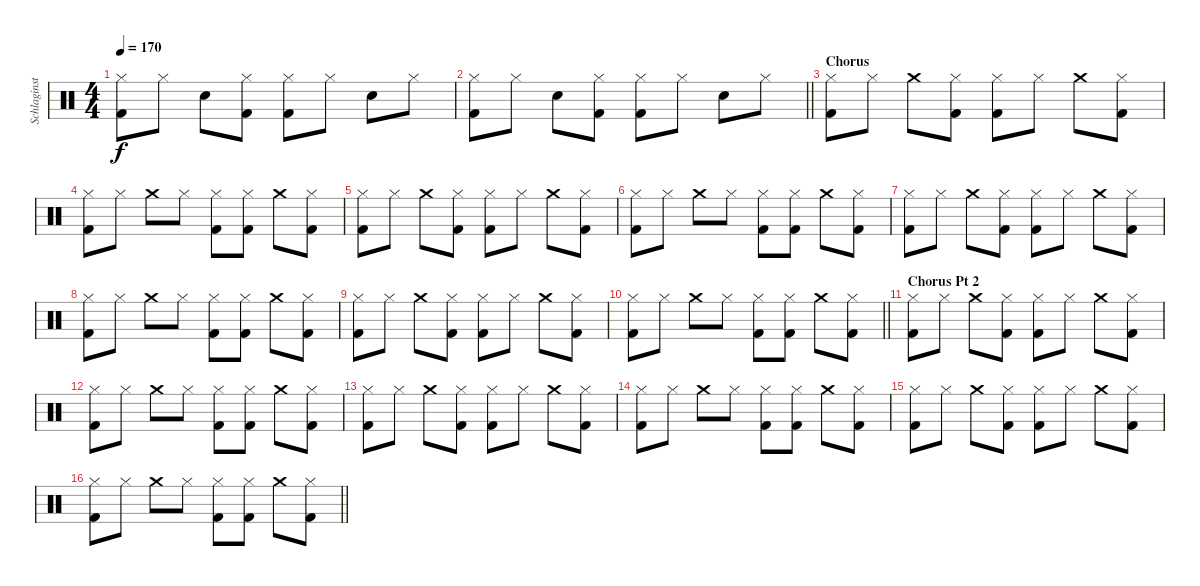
\track ("Schlaginstrumente - Auswahl" "Schlaginst") {instrument percussion}
\staff {score}
\articulation defaults
\ts (4 4)
\tempo 170
\clef neutral
\ks c
("Hi-Hat (closed)" "Kick (hit) 2").8{dy f} "Hi-Hat (closed)".8 "Snare (hit) 2".8 ("Hi-Hat (closed)" "Kick (hit) 2").8 ("Hi-Hat (closed)" "Kick (hit) 2").8 "Hi-Hat (closed)".8 "Snare (hit) 2".8 "Hi-Hat (closed)".8 |
\barLineRight lightlight
("Hi-Hat (closed)" "Kick (hit) 2").8 "Hi-Hat (closed)".8 "Snare (hit) 2".8 ("Hi-Hat (closed)" "Kick (hit) 2").8 ("Hi-Hat (closed)" "Kick (hit) 2").8 "Hi-Hat (closed)".8 "Snare (hit) 2".8 "Hi-Hat (closed)".8 |
\section ("" "Chorus")
("Hi-Hat (closed)" "Kick (hit) 2").8 "Hi-Hat (closed)".8 "Crash medium (hit)".8 ("Hi-Hat (closed)" "Kick (hit) 2").8 ("Hi-Hat (closed)" "Kick (hit) 2").8 "Hi-Hat (closed)".8 "Crash medium (hit)".8 ("Hi-Hat (closed)" "Kick (hit) 2").8 |
("Hi-Hat (closed)" "Kick (hit) 2").8 "Hi-Hat (closed)".8 "Crash medium (hit)".8 "Hi-Hat (closed)".8 ("Hi-Hat (closed)" "Kick (hit) 2").8 ("Hi-Hat (closed)" "Kick (hit) 2").8 "Crash medium (hit)".8 ("Hi-Hat (closed)" "Kick (hit) 2").8 |
("Hi-Hat (closed)" "Kick (hit) 2").8 "Hi-Hat (closed)".8 "Crash medium (hit)".8 ("Hi-Hat (closed)" "Kick (hit) 2").8 ("Hi-Hat (closed)" "Kick (hit) 2").8 "Hi-Hat (closed)".8 "Crash medium (hit)".8 ("Hi-Hat (closed)" "Kick (hit) 2").8 |
("Hi-Hat (closed)" "Kick (hit) 2").8 "Hi-Hat (closed)".8 "Crash medium (hit)".8 "Hi-Hat (closed)".8 ("Hi-Hat (closed)" "Kick (hit) 2").8 ("Hi-Hat (closed)" "Kick (hit) 2").8 "Crash medium (hit)".8 ("Hi-Hat (closed)" "Kick (hit) 2").8 |
("Hi-Hat (closed)" "Kick (hit) 2").8 "Hi-Hat (closed)".8 "Crash medium (hit)".8 ("Hi-Hat (closed)" "Kick (hit) 2").8 ("Hi-Hat (closed)" "Kick (hit) 2").8 "Hi-Hat (closed)".8 "Crash medium (hit)".8 ("Hi-Hat (closed)" "Kick (hit) 2").8 |
("Hi-Hat (closed)" "Kick (hit) 2").8 "Hi-Hat (closed)".8 "Crash medium (hit)".8 "Hi-Hat (closed)".8 ("Hi-Hat (closed)" "Kick (hit) 2").8 ("Hi-Hat (closed)" "Kick (hit) 2").8 "Crash medium (hit)".8 ("Hi-Hat (closed)" "Kick (hit) 2").8 |
("Hi-Hat (closed)" "Kick (hit) 2").8 "Hi-Hat (closed)".8 "Crash medium (hit)".8 ("Hi-Hat (closed)" "Kick (hit) 2").8 ("Hi-Hat (closed)" "Kick (hit) 2").8 "Hi-Hat (closed)".8 "Crash medium (hit)".8 ("Hi-Hat (closed)" "Kick (hit) 2").8 |
\barLineRight lightlight
("Hi-Hat (closed)" "Kick (hit) 2").8 "Hi-Hat (closed)".8 "Crash medium (hit)".8 "Hi-Hat (closed)".8 ("Hi-Hat (closed)" "Kick (hit) 2").8 ("Hi-Hat (closed)" "Kick (hit) 2").8 "Crash medium (hit)".8 ("Hi-Hat (closed)" "Kick (hit) 2").8 |
\section ("" "Chorus Pt 2")
("Hi-Hat (closed)" "Kick (hit) 2").8 "Hi-Hat (closed)".8 "Crash medium (hit)".8 ("Hi-Hat (closed)" "Kick (hit) 2").8 ("Hi-Hat (closed)" "Kick (hit) 2").8 "Hi-Hat (closed)".8 "Crash medium (hit)".8 ("Hi-Hat (closed)" "Kick (hit) 2").8 |
("Hi-Hat (closed)" "Kick (hit) 2").8 "Hi-Hat (closed)".8 "Crash medium (hit)".8 "Hi-Hat (closed)".8 ("Hi-Hat (closed)" "Kick (hit) 2").8 ("Hi-Hat (closed)" "Kick (hit) 2").8 "Crash medium (hit)".8 ("Hi-Hat (closed)" "Kick (hit) 2").8 |
("Hi-Hat (closed)" "Kick (hit) 2").8 "Hi-Hat (closed)".8 "Crash medium (hit)".8 ("Hi-Hat (closed)" "Kick (hit) 2").8 ("Hi-Hat (closed)" "Kick (hit) 2").8 "Hi-Hat (closed)".8 "Crash medium (hit)".8 ("Hi-Hat (closed)" "Kick (hit) 2").8 |
("Hi-Hat (closed)" "Kick (hit) 2").8 "Hi-Hat (closed)".8 "Crash medium (hit)".8 "Hi-Hat (closed)".8 ("Hi-Hat (closed)" "Kick (hit) 2").8 ("Hi-Hat (closed)" "Kick (hit) 2").8 "Crash medium (hit)".8 ("Hi-Hat (closed)" "Kick (hit) 2").8 |
("Hi-Hat (closed)" "Kick (hit) 2").8 "Hi-Hat (closed)".8 "Crash medium (hit)".8 ("Hi-Hat (closed)" "Kick (hit) 2").8 ("Hi-Hat (closed)" "Kick (hit) 2").8 "Hi-Hat (closed)".8 "Crash medium (hit)".8 ("Hi-Hat (closed)" "Kick (hit) 2").8 |
\barLineRight lightlight
("Hi-Hat (closed)" "Kick (hit) 2").8 "Hi-Hat (closed)".8 "Crash medium (hit)".8 "Hi-Hat (closed)".8 ("Hi-Hat (closed)" "Kick (hit) 2").8 ("Hi-Hat (closed)" "Kick (hit) 2").8 "Crash medium (hit)".8 ("Hi-Hat (closed)" "Kick (hit) 2").8
